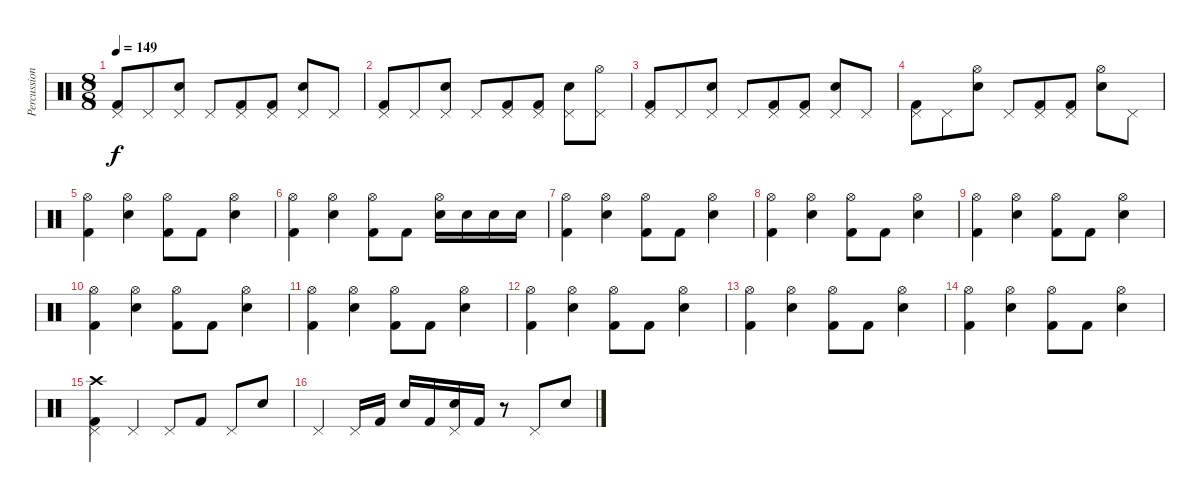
\track ("Percussion" "Percussion") {instrument percussion}
\staff {score}
\articulation defaults
\ts (8 8)
\tempo 149
\clef neutral
\ks c
("Pedal Hi-Hat (hit)" "Kick (hit) 2").8{dy f} "Pedal Hi-Hat (hit)".8 ("Pedal Hi-Hat (hit)" "Snare (hit) 2").8 "Pedal Hi-Hat (hit)".8 ("Pedal Hi-Hat (hit)" "Kick (hit) 2").8 ("Pedal Hi-Hat (hit)" "Kick (hit) 2").8 ("Pedal Hi-Hat (hit)" "Snare (hit) 2").8 "Pedal Hi-Hat (hit)".8 |
("Pedal Hi-Hat (hit)" "Kick (hit) 2").8 "Pedal Hi-Hat (hit)".8 ("Pedal Hi-Hat (hit)" "Snare (hit) 2").8 "Pedal Hi-Hat (hit)".8 ("Pedal Hi-Hat (hit)" "Kick (hit) 2").8 ("Pedal Hi-Hat (hit)" "Kick (hit) 2").8 ("Pedal Hi-Hat (hit)" "Snare (hit) 2").8 ("Pedal Hi-Hat (hit)" "Hi-Hat (open)").8 |
("Pedal Hi-Hat (hit)" "Kick (hit) 2").8 "Pedal Hi-Hat (hit)".8 ("Pedal Hi-Hat (hit)" "Snare (hit) 2").8 "Pedal Hi-Hat (hit)".8 ("Pedal Hi-Hat (hit)" "Kick (hit) 2").8 ("Pedal Hi-Hat (hit)" "Kick (hit) 2").8 ("Pedal Hi-Hat (hit)" "Snare (hit) 2").8 "Pedal Hi-Hat (hit)".8 |
("Pedal Hi-Hat (hit)" "Kick (hit) 2").8 "Pedal Hi-Hat (hit)".8 ("Hi-Hat (open)" "Snare (hit) 2").8 "Pedal Hi-Hat (hit)".8 ("Pedal Hi-Hat (hit)" "Kick (hit) 2").8 ("Pedal Hi-Hat (hit)" "Kick (hit) 2").8 ("Hi-Hat (open)" "Snare (hit) 2").8 "Pedal Hi-Hat (hit)".8 |
("Hi-Hat (open)" "Kick (hit) 2").4 ("Hi-Hat (open)" "Snare (hit) 2").4 ("Hi-Hat (open)" "Kick (hit) 2").8 "Kick (hit) 2".8 ("Hi-Hat (open)" "Snare (hit) 2").4 |
("Hi-Hat (open)" "Kick (hit) 2").4 ("Hi-Hat (open)" "Snare (hit) 2").4 ("Hi-Hat (open)" "Kick (hit) 2").8 "Kick (hit) 2".8 ("Hi-Hat (open)" "Snare (hit) 2").16 "Snare (hit) 2".16 "Snare (hit) 2".16 "Snare (hit) 2".16 |
("Hi-Hat (open)" "Kick (hit) 2").4 ("Hi-Hat (open)" "Snare (hit) 2").4 ("Hi-Hat (open)" "Kick (hit) 2").8 "Kick (hit) 2".8 ("Hi-Hat (open)" "Snare (hit) 2").4 |
("Hi-Hat (open)" "Kick (hit) 2").4 ("Hi-Hat (open)" "Snare (hit) 2").4 ("Hi-Hat (open)" "Kick (hit) 2").8 "Kick (hit) 2".8 ("Hi-Hat (open)" "Snare (hit) 2").4 |
("Hi-Hat (open)" "Kick (hit) 2").4 ("Hi-Hat (open)" "Snare (hit) 2").4 ("Hi-Hat (open)" "Kick (hit) 2").8 "Kick (hit) 2".8 ("Hi-Hat (open)" "Snare (hit) 2").4 |
("Hi-Hat (open)" "Kick (hit) 2").4 ("Hi-Hat (open)" "Snare (hit) 2").4 ("Hi-Hat (open)" "Kick (hit) 2").8 "Kick (hit) 2".8 ("Hi-Hat (open)" "Snare (hit) 2").4 |
("Hi-Hat (open)" "Kick (hit) 2").4 ("Hi-Hat (open)" "Snare (hit) 2").4 ("Hi-Hat (open)" "Kick (hit) 2").8 "Kick (hit) 2".8 ("Hi-Hat (open)" "Snare (hit) 2").4 |
("Hi-Hat (open)" "Kick (hit) 2").4 ("Hi-Hat (open)" "Snare (hit) 2").4 ("Hi-Hat (open)" "Kick (hit) 2").8 "Kick (hit) 2".8 ("Hi-Hat (open)" "Snare (hit) 2").4 |
("Hi-Hat (open)" "Kick (hit) 2").4 ("Hi-Hat (open)" "Snare (hit) 2").4 ("Hi-Hat (open)" "Kick (hit) 2").8 "Kick (hit) 2".8 ("Hi-Hat (open)" "Snare (hit) 2").4 |
("Hi-Hat (open)" "Kick (hit) 2").4 ("Hi-Hat (open)" "Snare (hit) 2").4 ("Hi-Hat (open)" "Kick (hit) 2").8 "Kick (hit) 2".8 ("Hi-Hat (open)" "Snare (hit) 2").4 |
("Pedal Hi-Hat (hit)" "Kick (hit) 2" "Crash high (hit)").4 "Pedal Hi-Hat (hit)".4 "Pedal Hi-Hat (hit)".8 "Kick (hit) 2".8 "Pedal Hi-Hat (hit)".8 "Snare (hit) 2".8 |
"Pedal Hi-Hat (hit)".4 "Pedal Hi-Hat (hit)".16 "Kick (hit) 2".16 "Snare (hit) 2".16 "Kick (hit) 2".16 ("Pedal Hi-Hat (hit)" "Snare (hit) 2").16 "Kick (hit) 2".16 r.8 "Pedal Hi-Hat (hit)".8 "Snare (hit) 2".8
